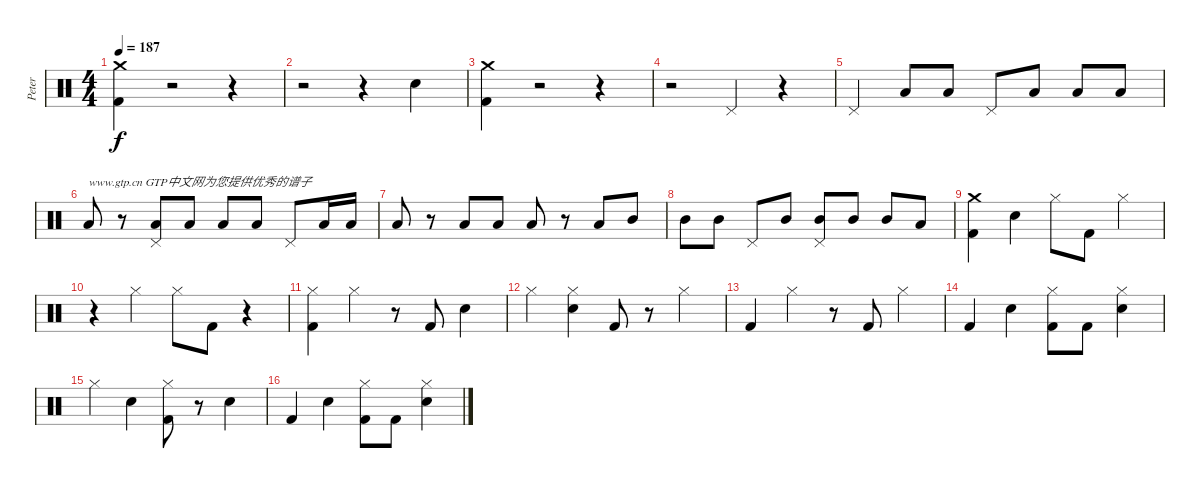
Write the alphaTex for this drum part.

\track ("Peter" "Peter") {instrument percussion}
\staff {score}
\articulation defaults
\ts (4 4)
\tempo 187
\clef neutral
\ks c
("Crash medium (hit)" "Kick (hit) 2").4{dy f} r.2 r.4 |
r.2 r.4 "Electric Snare (hit)".4 |
("Crash medium (hit)" "Kick (hit) 2").4 r.2 r.4 |
r.2 "Pedal Hi-Hat (hit)".4 r.4 |
"Pedal Hi-Hat (hit)".4 "Low Tom (hit)".8 "Low Tom (hit)".8 "Pedal Hi-Hat (hit)".8 "Low Tom (hit)".8 "Low Tom (hit)".8 "Low Tom (hit)".8 |
"Low Tom (hit)".8{txt "www.gtp.cn GTP中文网为您提供优秀的谱子"} r.8 ("Pedal Hi-Hat (hit)" "Low Tom (hit)").8 "Low Tom (hit)".8 "Low Tom (hit)".8 "Low Tom (hit)".8 "Pedal Hi-Hat (hit)".8 "Low Tom (hit)".16 "Low Tom (hit)".16 |
"Low Tom (hit)".8 r.8 "Low Tom (hit)".8 "Low Tom (hit)".8 "Low Tom (hit)".8 r.8 "Low Tom (hit)".8 "Mid Tom (hit)".8 |
"Mid Tom (hit)".8 "Mid Tom (hit)".8 "Pedal Hi-Hat (hit)".8 "Mid Tom (hit)".8 ("Pedal Hi-Hat (hit)" "Mid Tom (hit)").8 "Mid Tom (hit)".8 "Mid Tom (hit)".8 "Low Tom (hit)".8 |
("Crash medium (hit)" "Kick (hit) 2").4 "Electric Snare (hit)".4 "Hi-Hat (closed)".8 "Kick (hit) 2".8 "Hi-Hat (closed)".4 |
r.4 "Hi-Hat (closed)".4 "Hi-Hat (closed)".8 "Kick (hit) 2".8 r.4 |
("Hi-Hat (closed)" "Kick (hit) 2").4 "Hi-Hat (closed)".4 r.8 "Kick (hit) 2".8 "Electric Snare (hit)".4 |
"Hi-Hat (closed)".4 ("Hi-Hat (closed)" "Electric Snare (hit)").4 "Kick (hit) 2".8 r.8 "Hi-Hat (closed)".4 |
"Kick (hit) 2".4 "Hi-Hat (closed)".4 r.8 "Kick (hit) 2".8 "Hi-Hat (closed)".4 |
"Kick (hit) 2".4 "Electric Snare (hit)".4 ("Hi-Hat (closed)" "Kick (hit) 2").8 "Kick (hit) 2".8 ("Hi-Hat (closed)" "Electric Snare (hit)").4 |
"Hi-Hat (closed)".4 "Electric Snare (hit)".4 ("Hi-Hat (closed)" "Kick (hit) 2").8 r.8 "Electric Snare (hit)".4 |
"Kick (hit) 2".4 "Electric Snare (hit)".4 ("Hi-Hat (closed)" "Kick (hit) 2").8 "Kick (hit) 2".8 ("Hi-Hat (closed)" "Electric Snare (hit)").4
